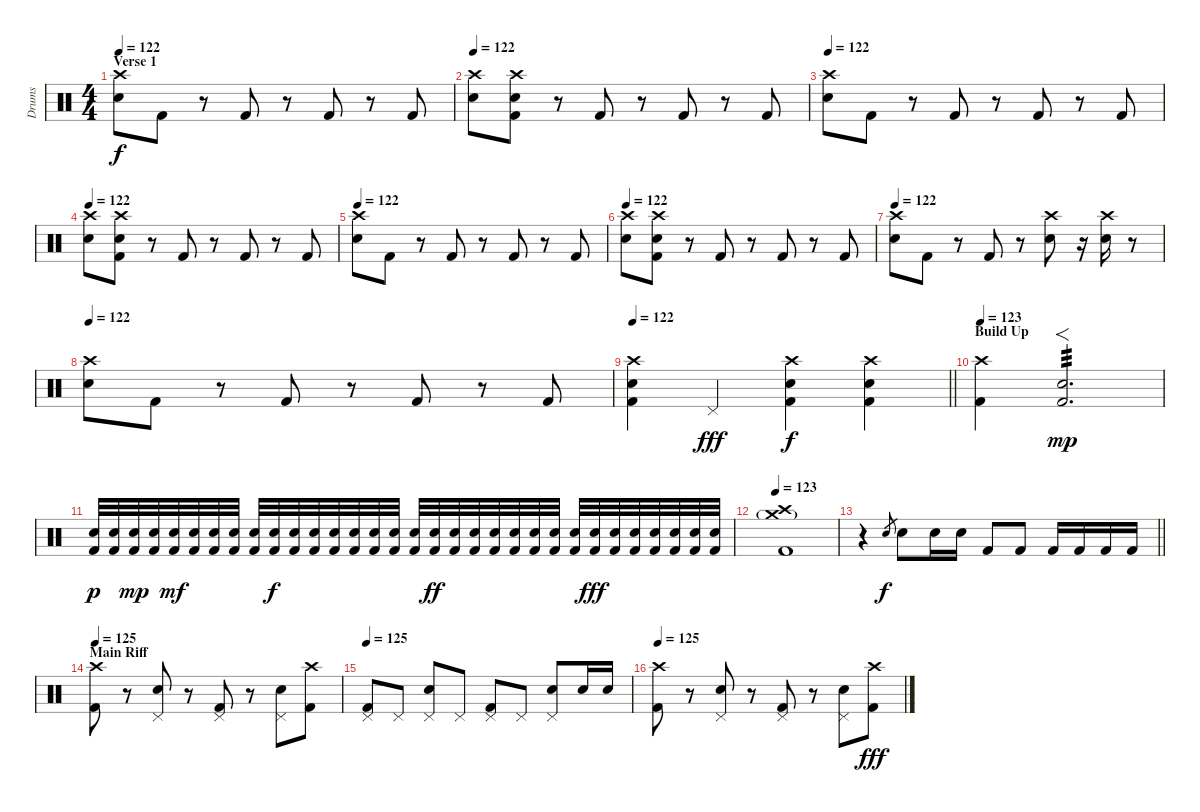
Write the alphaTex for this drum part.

\track ("Drums" "Drums") {instrument percussion}
\staff {score}
\articulation defaults
\ts (4 4)
\section ("" "Verse 1")
\tempo 122
\clef neutral
\ks c
("Crash high (hit)" "Snare (hit) 2").8{dy f} "Kick (hit) 2".8 r.8 "Kick (hit) 2".8 r.8 "Kick (hit) 2".8 r.8 "Kick (hit) 2".8 |
\tempo 122
("Crash high (hit)" "Snare (hit) 2").8 ("Crash high (hit)" "Snare (hit) 2" "Kick (hit) 2").8 r.8 "Kick (hit) 2".8 r.8 "Kick (hit) 2".8 r.8 "Kick (hit) 2".8 |
\tempo 122
("Crash high (hit)" "Snare (hit) 2").8 "Kick (hit) 2".8 r.8 "Kick (hit) 2".8 r.8 "Kick (hit) 2".8 r.8 "Kick (hit) 2".8 |
\tempo 122
("Crash high (hit)" "Snare (hit) 2").8 ("Crash high (hit)" "Snare (hit) 2" "Kick (hit) 2").8 r.8 "Kick (hit) 2".8 r.8 "Kick (hit) 2".8 r.8 "Kick (hit) 2".8 |
\tempo 122
("Crash high (hit)" "Snare (hit) 2").8 "Kick (hit) 2".8 r.8 "Kick (hit) 2".8 r.8 "Kick (hit) 2".8 r.8 "Kick (hit) 2".8 |
\tempo 122
("Crash high (hit)" "Snare (hit) 2").8 ("Crash high (hit)" "Snare (hit) 2" "Kick (hit) 2").8 r.8 "Kick (hit) 2".8 r.8 "Kick (hit) 2".8 r.8 "Kick (hit) 2".8 |
\tempo 122
("Crash high (hit)" "Snare (hit) 2").8 "Kick (hit) 2".8 r.8 "Kick (hit) 2".8 r.8 ("Crash high (hit)" "Snare (hit) 2").8 r.16 ("Crash high (hit)" "Snare (hit) 2").16 r.8 |
\tempo 122
("Crash high (hit)" "Snare (hit) 2").8 "Kick (hit) 2".8 r.8 "Kick (hit) 2".8 r.8 "Kick (hit) 2".8 r.8 "Kick (hit) 2".8 |
\tempo 122
\barLineRight lightlight
("Crash high (hit)" "Snare (hit) 2" "Kick (hit) 2").4 "Pedal Hi-Hat (hit)".4{dy fff} ("Crash high (hit)" "Snare (hit) 2" "Kick (hit) 2").4{dy f} ("Crash high (hit)" "Snare (hit) 2" "Kick (hit) 2").4 |
\section ("" "Build Up")
\tempo 123
("Crash high (hit)" "Kick (hit) 2").4 ("Snare (hit) 2" "Kick (hit) 2").2{f d tp 3 dy mp} |
("Snare (hit) 2" "Kick (hit) 2").32{dy p} ("Snare (hit) 2" "Kick (hit) 2").32 ("Snare (hit) 2" "Kick (hit) 2").32{dy mp} ("Snare (hit) 2" "Kick (hit) 2").32 ("Snare (hit) 2" "Kick (hit) 2").32{dy mf} ("Snare (hit) 2" "Kick (hit) 2").32 ("Snare (hit) 2" "Kick (hit) 2").32 ("Snare (hit) 2" "Kick (hit) 2").32 ("Snare (hit) 2" "Kick (hit) 2").32 ("Snare (hit) 2" "Kick (hit) 2").32{dy f} ("Snare (hit) 2" "Kick (hit) 2").32 ("Snare (hit) 2" "Kick (hit) 2").32 ("Snare (hit) 2" "Kick (hit) 2").32 ("Snare (hit) 2" "Kick (hit) 2").32 ("Snare (hit) 2" "Kick (hit) 2").32 ("Snare (hit) 2" "Kick (hit) 2").32 ("Snare (hit) 2" "Kick (hit) 2").32 ("Snare (hit) 2" "Kick (hit) 2").32{dy ff} ("Snare (hit) 2" "Kick (hit) 2").32 ("Snare (hit) 2" "Kick (hit) 2").32 ("Snare (hit) 2" "Kick (hit) 2").32 ("Snare (hit) 2" "Kick (hit) 2").32 ("Snare (hit) 2" "Kick (hit) 2").32 ("Snare (hit) 2" "Kick (hit) 2").32 ("Snare (hit) 2" "Kick (hit) 2").32 ("Snare (hit) 2" "Kick (hit) 2").32{dy fff} ("Snare (hit) 2" "Kick (hit) 2").32 ("Snare (hit) 2" "Kick (hit) 2").32 ("Snare (hit) 2" "Kick (hit) 2").32 ("Snare (hit) 2" "Kick (hit) 2").32 ("Snare (hit) 2" "Kick (hit) 2").32 ("Snare (hit) 2" "Kick (hit) 2").32 |
\tempo 123
("Crash high (hit)" "Crash medium (hit)"{g} "Kick (hit) 2").1 |
\barLineRight lightlight
r.4 "Snare (hit) 2".8{gr dy f} "Snare (hit) 2".8 "Snare (hit) 2".16 "Snare (hit) 2".16 "Kick (hit) 2".8 "Kick (hit) 2".8 "Kick (hit) 2".16 "Kick (hit) 2".16 "Kick (hit) 2".16 "Kick (hit) 2".16 |
\section ("" "Main Riff")
\tempo 125
("Crash high (hit)" "Kick (hit) 2").8 r.8 ("Pedal Hi-Hat (hit)" "Snare (hit) 2").8 r.8 ("Pedal Hi-Hat (hit)" "Kick (hit) 2").8 r.8 ("Pedal Hi-Hat (hit)" "Snare (hit) 2").8 ("Crash high (hit)" "Kick (hit) 2").8 |
\tempo 125
("Pedal Hi-Hat (hit)" "Kick (hit) 2").8 "Pedal Hi-Hat (hit)".8 ("Pedal Hi-Hat (hit)" "Snare (hit) 2").8 "Pedal Hi-Hat (hit)".8 ("Pedal Hi-Hat (hit)" "Kick (hit) 2").8 "Pedal Hi-Hat (hit)".8 ("Pedal Hi-Hat (hit)" "Snare (hit) 2").8 "Snare (hit) 2".16 "Snare (hit) 2".16 |
\tempo 125
("Crash high (hit)" "Kick (hit) 2").8 r.8 ("Pedal Hi-Hat (hit)" "Snare (hit) 2").8 r.8 ("Pedal Hi-Hat (hit)" "Kick (hit) 2").8 r.8 ("Pedal Hi-Hat (hit)" "Snare (hit) 2").8 ("Crash high (hit)" "Kick (hit) 2").8{dy fff}
